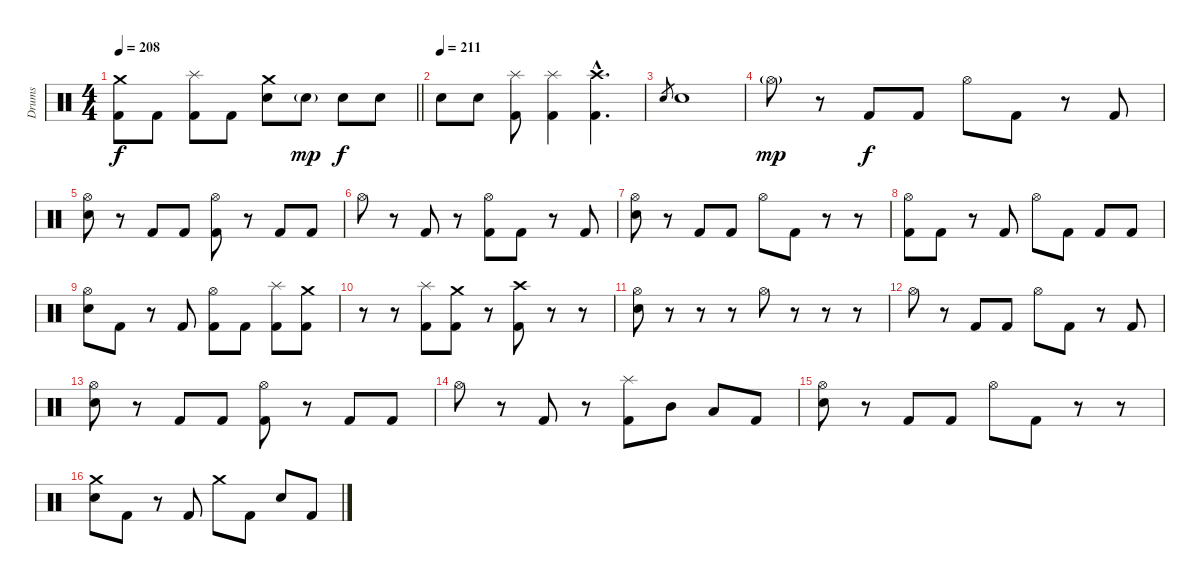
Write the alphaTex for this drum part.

\track ("Drums" "Drums") {instrument percussion}
\staff {score}
\articulation defaults
\ts (4 4)
\tempo 208
\clef neutral
\barLineRight lightlight
\ks c
("Crash medium (hit)" "Kick (hit) 2").8{dy f} "Kick (hit) 2".8 ("Splash (hit)" "Kick (hit) 2").8 "Kick (hit) 2".8 ("Crash medium (hit)" "Electric Snare (hit)").8 "Electric Snare (hit)"{g}.8{dy mp} "Electric Snare (hit)".8{dy f} "Electric Snare (hit)".8 |
\section ("" "")
\tempo (211)
"Electric Snare (hit)".8 "Electric Snare (hit)".8 ("Splash (hit)" "Kick (hit) 2").8 ("Splash (hit)" "Kick (hit) 2").4 ("Crash high (hit)"{hac} "Kick (hit) 2"{hac}).4{d} |
"Electric Snare (hit)".8{gr} "Electric Snare (hit)".1 |
"Hi-Hat (open)"{g}.8{dy mp} r.8 "Kick (hit) 2".8{dy f} "Kick (hit) 2".8 "Hi-Hat (open)".8 "Kick (hit) 2".8 r.8 "Kick (hit) 2".8 |
("Hi-Hat (open)" "Electric Snare (hit)").8 r.8 "Kick (hit) 2".8 "Kick (hit) 2".8 ("Hi-Hat (open)" "Kick (hit) 2").8 r.8 "Kick (hit) 2".8 "Kick (hit) 2".8 |
"Hi-Hat (open)".8 r.8 "Kick (hit) 2".8 r.8 ("Hi-Hat (open)" "Kick (hit) 2").8 "Kick (hit) 2".8 r.8 "Kick (hit) 2".8 |
("Hi-Hat (open)" "Electric Snare (hit)").8 r.8 "Kick (hit) 2".8 "Kick (hit) 2".8 "Hi-Hat (open)".8 "Kick (hit) 2".8 r.8 r.8 |
("Hi-Hat (open)" "Kick (hit) 2").8 "Kick (hit) 2".8 r.8 "Kick (hit) 2".8 "Hi-Hat (open)".8 "Kick (hit) 2".8 "Kick (hit) 2".8 "Kick (hit) 2".8 |
("Hi-Hat (open)" "Electric Snare (hit)").8 "Kick (hit) 2".8 r.8 "Kick (hit) 2".8 ("Hi-Hat (open)" "Kick (hit) 2").8 "Kick (hit) 2".8 ("Splash (hit)" "Kick (hit) 2").8 ("Crash medium (hit)" "Kick (hit) 2").8 |
r.8 r.8 ("Splash (hit)" "Kick (hit) 2").8 ("Crash medium (hit)" "Kick (hit) 2").8 r.8 ("Crash high (hit)" "Kick (hit) 2").8 r.8 r.8 |
("Hi-Hat (open)" "Electric Snare (hit)").8 r.8 r.8 r.8 "Hi-Hat (open)".8 r.8 r.8 r.8 |
"Hi-Hat (open)".8 r.8 "Kick (hit) 2".8 "Kick (hit) 2".8 "Hi-Hat (open)".8 "Kick (hit) 2".8 r.8 "Kick (hit) 2".8 |
("Hi-Hat (open)" "Electric Snare (hit)").8 r.8 "Kick (hit) 2".8 "Kick (hit) 2".8 ("Hi-Hat (open)" "Kick (hit) 2").8 r.8 "Kick (hit) 2".8 "Kick (hit) 2".8 |
"Hi-Hat (open)".8 r.8 "Kick (hit) 2".8 r.8 ("Splash (hit)" "Kick (hit) 2").8 "Mid Tom (hit)".8 "Low Tom (hit)".8 "Kick (hit) 2".8 |
("Hi-Hat (open)" "Electric Snare (hit)").8 r.8 "Kick (hit) 2".8 "Kick (hit) 2".8 "Hi-Hat (open)".8 "Kick (hit) 2".8 r.8 r.8 |
("Crash medium (hit)" "Electric Snare (hit)").8 "Kick (hit) 2".8 r.8 "Kick (hit) 2".8 "Crash medium (hit)".8 "Kick (hit) 2".8 "Electric Snare (hit)".8 "Kick (hit) 2".8
